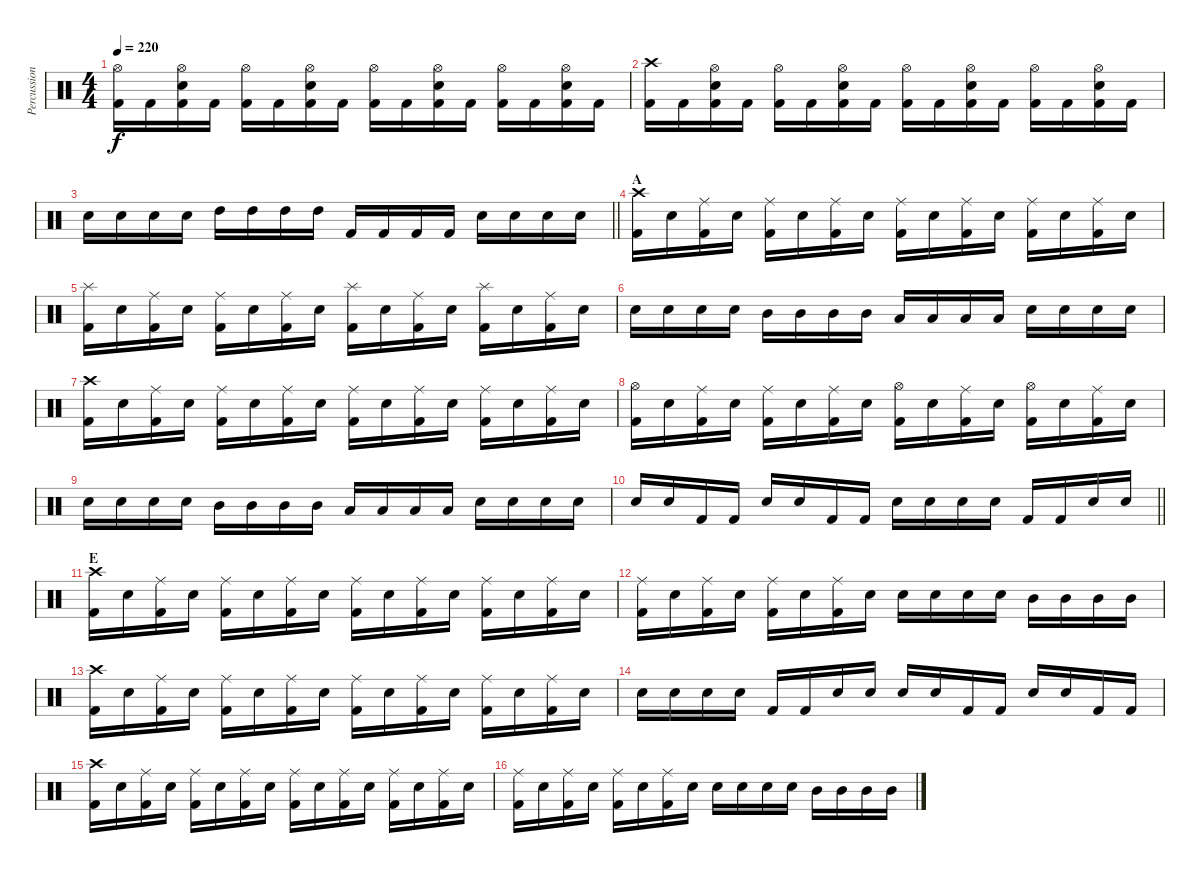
\track ("Percussion" "Percussion") {instrument percussion}
\staff {score}
\articulation defaults
\ts (4 4)
\tempo 220
\clef neutral
\ks c
("Hi-Hat (open)" "Kick (hit) 2").16{dy f} "Kick (hit) 2".16 ("Hi-Hat (open)" "Electric Snare (hit)" "Kick (hit) 2").16 "Kick (hit) 2".16 ("Hi-Hat (open)" "Kick (hit) 2").16 "Kick (hit) 2".16 ("Hi-Hat (open)" "Electric Snare (hit)" "Kick (hit) 2").16 "Kick (hit) 2".16 ("Hi-Hat (open)" "Kick (hit) 2").16 "Kick (hit) 2".16 ("Hi-Hat (open)" "Electric Snare (hit)" "Kick (hit) 2").16 "Kick (hit) 2".16 ("Hi-Hat (open)" "Kick (hit) 2").16 "Kick (hit) 2".16 ("Hi-Hat (open)" "Electric Snare (hit)" "Kick (hit) 2").16 "Kick (hit) 2".16 |
("Crash high (hit)" "Kick (hit) 2").16 "Kick (hit) 2".16 ("Hi-Hat (open)" "Electric Snare (hit)" "Kick (hit) 2").16 "Kick (hit) 2".16 ("Hi-Hat (open)" "Kick (hit) 2").16 "Kick (hit) 2".16 ("Hi-Hat (open)" "Electric Snare (hit)" "Kick (hit) 2").16 "Kick (hit) 2".16 ("Hi-Hat (open)" "Kick (hit) 2").16 "Kick (hit) 2".16 ("Hi-Hat (open)" "Electric Snare (hit)" "Kick (hit) 2").16 "Kick (hit) 2".16 ("Hi-Hat (open)" "Kick (hit) 2").16 "Kick (hit) 2".16 ("Hi-Hat (open)" "Electric Snare (hit)" "Kick (hit) 2").16 "Kick (hit) 2".16 |
\barLineRight lightlight "Electric Snare (hit)".16 "Electric Snare (hit)".16 "Electric Snare (hit)".16 "Electric Snare (hit)".16 "High Tom (hit)".16 "High Tom (hit)".16 "High Tom (hit)".16 "High Tom (hit)".16 "Kick (hit) 2".16 "Kick (hit) 2".16 "Kick (hit) 2".16 "Kick (hit) 2".16 "Electric Snare (hit)".16 "Electric Snare (hit)".16 "Electric Snare (hit)".16 "Electric Snare (hit)".16
|
\section ("" "A")
("Crash high (hit)" "Kick (hit) 2").16 "Electric Snare (hit)".16 ("Ride (middle)" "Kick (hit) 2").16 "Electric Snare (hit)".16 ("Ride (middle)" "Kick (hit) 2").16 "Electric Snare (hit)".16 ("Ride (middle)" "Kick (hit) 2").16 "Electric Snare (hit)".16 ("Ride (middle)" "Kick (hit) 2").16 "Electric Snare (hit)".16 ("Ride (middle)" "Kick (hit) 2").16 "Electric Snare (hit)".16 ("Ride (middle)" "Kick (hit) 2").16 "Electric Snare (hit)".16 ("Ride (middle)" "Kick (hit) 2").16 "Electric Snare (hit)".16 |
("Splash (hit)" "Kick (hit) 2").16 "Electric Snare (hit)".16 ("Ride (middle)" "Kick (hit) 2").16 "Electric Snare (hit)".16 ("Ride (middle)" "Kick (hit) 2").16 "Electric Snare (hit)".16 ("Ride (middle)" "Kick (hit) 2").16 "Electric Snare (hit)".16 ("Splash (hit)" "Kick (hit) 2").16 "Electric Snare (hit)".16 ("Ride (middle)" "Kick (hit) 2").16 "Electric Snare (hit)".16 ("Splash (hit)" "Kick (hit) 2").16 "Electric Snare (hit)".16 ("Ride (middle)" "Kick (hit) 2").16 "Electric Snare (hit)".16 |
"Electric Snare (hit)".16 "Electric Snare (hit)".16 "Electric Snare (hit)".16 "Electric Snare (hit)".16 "Mid Tom (hit)".16 "Mid Tom (hit)".16 "Mid Tom (hit)".16 "Mid Tom (hit)".16 "Low Tom (hit)".16 "Low Tom (hit)".16 "Low Tom (hit)".16 "Low Tom (hit)".16 "Electric Snare (hit)".16 "Electric Snare (hit)".16 "Electric Snare (hit)".16 "Electric Snare (hit)".16 |
("Crash high (hit)" "Kick (hit) 2").16 "Electric Snare (hit)".16 ("Ride (middle)" "Kick (hit) 2").16 "Electric Snare (hit)".16 ("Ride (middle)" "Kick (hit) 2").16 "Electric Snare (hit)".16 ("Ride (middle)" "Kick (hit) 2").16 "Electric Snare (hit)".16 ("Ride (middle)" "Kick (hit) 2").16 "Electric Snare (hit)".16 ("Ride (middle)" "Kick (hit) 2").16 "Electric Snare (hit)".16 ("Ride (middle)" "Kick (hit) 2").16 "Electric Snare (hit)".16 ("Ride (middle)" "Kick (hit) 2").16 "Electric Snare (hit)".16 |
("Hi-Hat (open)" "Kick (hit) 2").16 "Electric Snare (hit)".16 ("Ride (middle)" "Kick (hit) 2").16 "Electric Snare (hit)".16 ("Ride (middle)" "Kick (hit) 2").16 "Electric Snare (hit)".16 ("Ride (middle)" "Kick (hit) 2").16 "Electric Snare (hit)".16 ("Hi-Hat (open)" "Kick (hit) 2").16 "Electric Snare (hit)".16 ("Ride (middle)" "Kick (hit) 2").16 "Electric Snare (hit)".16 ("Hi-Hat (open)" "Kick (hit) 2").16 "Electric Snare (hit)".16 ("Ride (middle)" "Kick (hit) 2").16 "Electric Snare (hit)".16 |
"Electric Snare (hit)".16 "Electric Snare (hit)".16 "Electric Snare (hit)".16 "Electric Snare (hit)".16 "Mid Tom (hit)".16 "Mid Tom (hit)".16 "Mid Tom (hit)".16 "Mid Tom (hit)".16 "Low Tom (hit)".16 "Low Tom (hit)".16 "Low Tom (hit)".16 "Low Tom (hit)".16 "Electric Snare (hit)".16 "Electric Snare (hit)".16 "Electric Snare (hit)".16 "Electric Snare (hit)".16 |
\barLineRight lightlight "Electric Snare (hit)".16 "Electric Snare (hit)".16 "Kick (hit) 2".16 "Kick (hit) 2".16 "Electric Snare (hit)".16 "Electric Snare (hit)".16 "Kick (hit) 2".16 "Kick (hit) 2".16 "Electric Snare (hit)".16 "Electric Snare (hit)".16 "Electric Snare (hit)".16 "Electric Snare (hit)".16 "Kick (hit) 2".16 "Kick (hit) 2".16 "Electric Snare (hit)".16 "Electric Snare (hit)".16
|
\section ("" "E")
("Crash high (hit)" "Kick (hit) 2").16 "Electric Snare (hit)".16 ("Ride (middle)" "Kick (hit) 2").16 "Electric Snare (hit)".16 ("Ride (middle)" "Kick (hit) 2").16 "Electric Snare (hit)".16 ("Ride (middle)" "Kick (hit) 2").16 "Electric Snare (hit)".16 ("Ride (middle)" "Kick (hit) 2").16 "Electric Snare (hit)".16 ("Ride (middle)" "Kick (hit) 2").16 "Electric Snare (hit)".16 ("Ride (middle)" "Kick (hit) 2").16 "Electric Snare (hit)".16 ("Ride (middle)" "Kick (hit) 2").16 "Electric Snare (hit)".16 |
("Ride (middle)" "Kick (hit) 2").16 "Electric Snare (hit)".16 ("Ride (middle)" "Kick (hit) 2").16 "Electric Snare (hit)".16 ("Ride (middle)" "Kick (hit) 2").16 "Electric Snare (hit)".16 ("Ride (middle)" "Kick (hit) 2").16 "Electric Snare (hit)".16 "Electric Snare (hit)".16 "Electric Snare (hit)".16 "Electric Snare (hit)".16 "Electric Snare (hit)".16 "Mid Tom (hit)".16 "Mid Tom (hit)".16 "Mid Tom (hit)".16 "Mid Tom (hit)".16 |
("Crash high (hit)" "Kick (hit) 2").16 "Electric Snare (hit)".16 ("Ride (middle)" "Kick (hit) 2").16 "Electric Snare (hit)".16 ("Ride (middle)" "Kick (hit) 2").16 "Electric Snare (hit)".16 ("Ride (middle)" "Kick (hit) 2").16 "Electric Snare (hit)".16 ("Ride (middle)" "Kick (hit) 2").16 "Electric Snare (hit)".16 ("Ride (middle)" "Kick (hit) 2").16 "Electric Snare (hit)".16 ("Ride (middle)" "Kick (hit) 2").16 "Electric Snare (hit)".16 ("Ride (middle)" "Kick (hit) 2").16 "Electric Snare (hit)".16 |
"Electric Snare (hit)".16 "Electric Snare (hit)".16 "Electric Snare (hit)".16 "Electric Snare (hit)".16 "Kick (hit) 2".16 "Kick (hit) 2".16 "Electric Snare (hit)".16 "Electric Snare (hit)".16 "Electric Snare (hit)".16 "Electric Snare (hit)".16 "Kick (hit) 2".16 "Kick (hit) 2".16 "Electric Snare (hit)".16 "Electric Snare (hit)".16 "Kick (hit) 2".16 "Kick (hit) 2".16 |
("Crash high (hit)" "Kick (hit) 2").16 "Electric Snare (hit)".16 ("Ride (middle)" "Kick (hit) 2").16 "Electric Snare (hit)".16 ("Ride (middle)" "Kick (hit) 2").16 "Electric Snare (hit)".16 ("Ride (middle)" "Kick (hit) 2").16 "Electric Snare (hit)".16 ("Ride (middle)" "Kick (hit) 2").16 "Electric Snare (hit)".16 ("Ride (middle)" "Kick (hit) 2").16 "Electric Snare (hit)".16 ("Ride (middle)" "Kick (hit) 2").16 "Electric Snare (hit)".16 ("Ride (middle)" "Kick (hit) 2").16 "Electric Snare (hit)".16 |
("Ride (middle)" "Kick (hit) 2").16 "Electric Snare (hit)".16 ("Ride (middle)" "Kick (hit) 2").16 "Electric Snare (hit)".16 ("Ride (middle)" "Kick (hit) 2").16 "Electric Snare (hit)".16 ("Ride (middle)" "Kick (hit) 2").16 "Electric Snare (hit)".16 "Electric Snare (hit)".16 "Electric Snare (hit)".16 "Electric Snare (hit)".16 "Electric Snare (hit)".16 "Mid Tom (hit)".16 "Mid Tom (hit)".16 "Mid Tom (hit)".16 "Mid Tom (hit)".16
